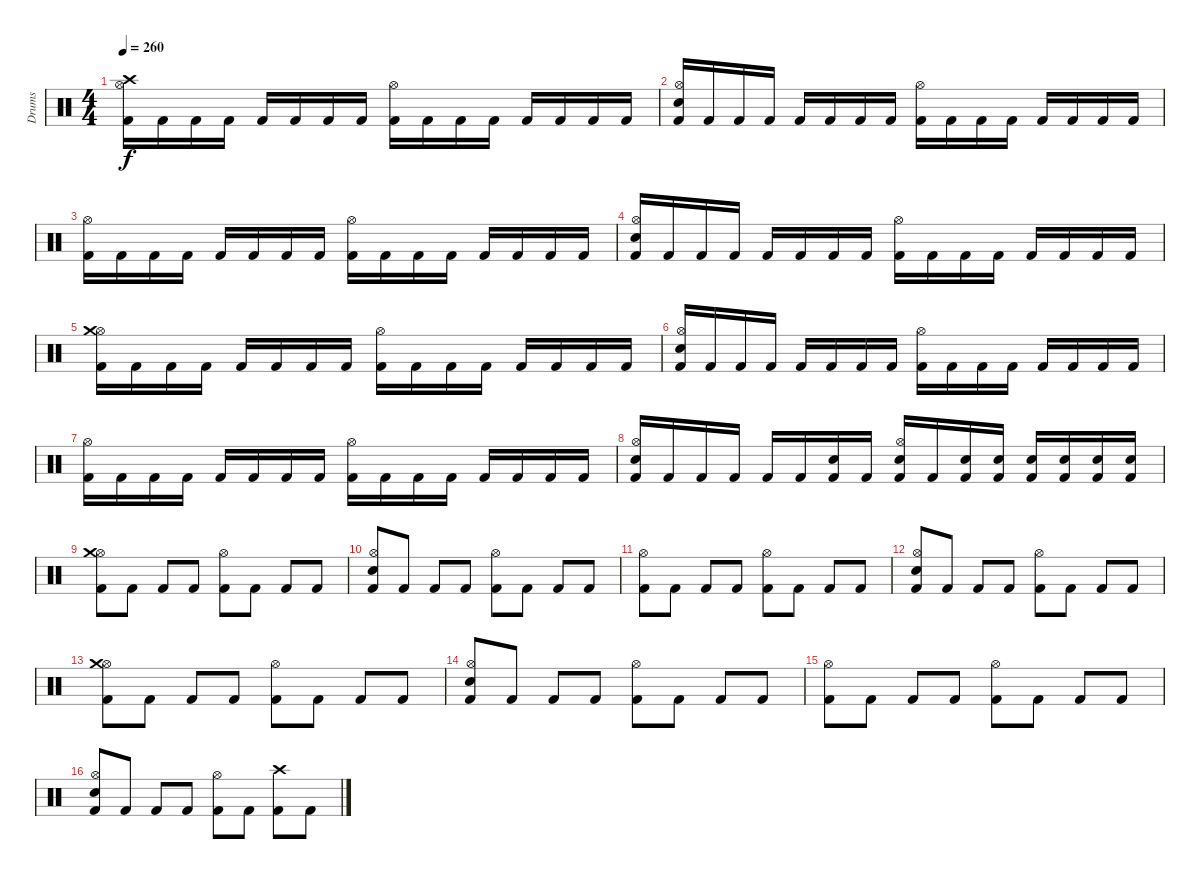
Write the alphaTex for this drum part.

\track ("Drums" "Drums") {instrument percussion}
\staff {score}
\articulation defaults
\ts (4 4)
\tempo 260
\clef neutral
\ks c
("Kick (hit) 2" "Hi-Hat (open)" "Crash high (hit)").16{dy f} "Kick (hit) 2".16 "Kick (hit) 2".16 "Kick (hit) 2".16 "Kick (hit) 2".16 "Kick (hit) 2".16 "Kick (hit) 2".16 "Kick (hit) 2".16 ("Kick (hit) 2" "Hi-Hat (open)").16 "Kick (hit) 2".16 "Kick (hit) 2".16 "Kick (hit) 2".16 "Kick (hit) 2".16 "Kick (hit) 2".16 "Kick (hit) 2".16 "Kick (hit) 2".16 |
("Kick (hit) 2" "Electric Snare (hit)" "Hi-Hat (open)").16 "Kick (hit) 2".16 "Kick (hit) 2".16 "Kick (hit) 2".16 "Kick (hit) 2".16 "Kick (hit) 2".16 "Kick (hit) 2".16 "Kick (hit) 2".16 ("Kick (hit) 2" "Hi-Hat (open)").16 "Kick (hit) 2".16 "Kick (hit) 2".16 "Kick (hit) 2".16 "Kick (hit) 2".16 "Kick (hit) 2".16 "Kick (hit) 2".16 "Kick (hit) 2".16 |
("Kick (hit) 2" "Hi-Hat (open)").16 "Kick (hit) 2".16 "Kick (hit) 2".16 "Kick (hit) 2".16 "Kick (hit) 2".16 "Kick (hit) 2".16 "Kick (hit) 2".16 "Kick (hit) 2".16 ("Kick (hit) 2" "Hi-Hat (open)").16 "Kick (hit) 2".16 "Kick (hit) 2".16 "Kick (hit) 2".16 "Kick (hit) 2".16 "Kick (hit) 2".16 "Kick (hit) 2".16 "Kick (hit) 2".16 |
("Kick (hit) 2" "Electric Snare (hit)" "Hi-Hat (open)").16 "Kick (hit) 2".16 "Kick (hit) 2".16 "Kick (hit) 2".16 "Kick (hit) 2".16 "Kick (hit) 2".16 "Kick (hit) 2".16 "Kick (hit) 2".16 ("Kick (hit) 2" "Hi-Hat (open)").16 "Kick (hit) 2".16 "Kick (hit) 2".16 "Kick (hit) 2".16 "Kick (hit) 2".16 "Kick (hit) 2".16 "Kick (hit) 2".16 "Kick (hit) 2".16 |
("Kick (hit) 2" "Hi-Hat (open)" "Crash medium (hit)").16 "Kick (hit) 2".16 "Kick (hit) 2".16 "Kick (hit) 2".16 "Kick (hit) 2".16 "Kick (hit) 2".16 "Kick (hit) 2".16 "Kick (hit) 2".16 ("Kick (hit) 2" "Hi-Hat (open)").16 "Kick (hit) 2".16 "Kick (hit) 2".16 "Kick (hit) 2".16 "Kick (hit) 2".16 "Kick (hit) 2".16 "Kick (hit) 2".16 "Kick (hit) 2".16 |
("Kick (hit) 2" "Electric Snare (hit)" "Hi-Hat (open)").16 "Kick (hit) 2".16 "Kick (hit) 2".16 "Kick (hit) 2".16 "Kick (hit) 2".16 "Kick (hit) 2".16 "Kick (hit) 2".16 "Kick (hit) 2".16 ("Kick (hit) 2" "Hi-Hat (open)").16 "Kick (hit) 2".16 "Kick (hit) 2".16 "Kick (hit) 2".16 "Kick (hit) 2".16 "Kick (hit) 2".16 "Kick (hit) 2".16 "Kick (hit) 2".16 |
("Kick (hit) 2" "Hi-Hat (open)").16 "Kick (hit) 2".16 "Kick (hit) 2".16 "Kick (hit) 2".16 "Kick (hit) 2".16 "Kick (hit) 2".16 "Kick (hit) 2".16 "Kick (hit) 2".16 ("Kick (hit) 2" "Hi-Hat (open)").16 "Kick (hit) 2".16 "Kick (hit) 2".16 "Kick (hit) 2".16 "Kick (hit) 2".16 "Kick (hit) 2".16 "Kick (hit) 2".16 "Kick (hit) 2".16 |
("Kick (hit) 2" "Electric Snare (hit)" "Hi-Hat (open)").16 "Kick (hit) 2".16 "Kick (hit) 2".16 "Kick (hit) 2".16 "Kick (hit) 2".16 "Kick (hit) 2".16 ("Kick (hit) 2" "Electric Snare (hit)").16 "Kick (hit) 2".16 ("Kick (hit) 2" "Electric Snare (hit)" "Hi-Hat (open)").16 "Kick (hit) 2".16 ("Kick (hit) 2" "Electric Snare (hit)").16 ("Kick (hit) 2" "Electric Snare (hit)").16 ("Kick (hit) 2" "Electric Snare (hit)").16 ("Kick (hit) 2" "Electric Snare (hit)").16 ("Kick (hit) 2" "Electric Snare (hit)").16 ("Kick (hit) 2" "Electric Snare (hit)").16 |
("Kick (hit) 2" "Hi-Hat (open)" "Crash medium (hit)").8 "Kick (hit) 2".8 "Kick (hit) 2".8 "Kick (hit) 2".8 ("Kick (hit) 2" "Hi-Hat (open)").8 "Kick (hit) 2".8 "Kick (hit) 2".8 "Kick (hit) 2".8 |
("Kick (hit) 2" "Electric Snare (hit)" "Hi-Hat (open)").8 "Kick (hit) 2".8 "Kick (hit) 2".8 "Kick (hit) 2".8 ("Kick (hit) 2" "Hi-Hat (open)").8 "Kick (hit) 2".8 "Kick (hit) 2".8 "Kick (hit) 2".8 |
("Kick (hit) 2" "Hi-Hat (open)").8 "Kick (hit) 2".8 "Kick (hit) 2".8 "Kick (hit) 2".8 ("Kick (hit) 2" "Hi-Hat (open)").8 "Kick (hit) 2".8 "Kick (hit) 2".8 "Kick (hit) 2".8 |
("Kick (hit) 2" "Electric Snare (hit)" "Hi-Hat (open)").8 "Kick (hit) 2".8 "Kick (hit) 2".8 "Kick (hit) 2".8 ("Kick (hit) 2" "Hi-Hat (open)").8 "Kick (hit) 2".8 "Kick (hit) 2".8 "Kick (hit) 2".8 |
("Kick (hit) 2" "Hi-Hat (open)" "Crash medium (hit)").8 "Kick (hit) 2".8 "Kick (hit) 2".8 "Kick (hit) 2".8 ("Kick (hit) 2" "Hi-Hat (open)").8 "Kick (hit) 2".8 "Kick (hit) 2".8 "Kick (hit) 2".8 |
("Kick (hit) 2" "Electric Snare (hit)" "Hi-Hat (open)").8 "Kick (hit) 2".8 "Kick (hit) 2".8 "Kick (hit) 2".8 ("Kick (hit) 2" "Hi-Hat (open)").8 "Kick (hit) 2".8 "Kick (hit) 2".8 "Kick (hit) 2".8 |
("Kick (hit) 2" "Hi-Hat (open)").8 "Kick (hit) 2".8 "Kick (hit) 2".8 "Kick (hit) 2".8 ("Kick (hit) 2" "Hi-Hat (open)").8 "Kick (hit) 2".8 "Kick (hit) 2".8 "Kick (hit) 2".8 |
("Kick (hit) 2" "Electric Snare (hit)" "Hi-Hat (open)").8 "Kick (hit) 2".8 "Kick (hit) 2".8 "Kick (hit) 2".8 ("Kick (hit) 2" "Hi-Hat (open)").8 "Kick (hit) 2".8 ("Kick (hit) 2" "Crash high (hit)").8 "Kick (hit) 2".8
